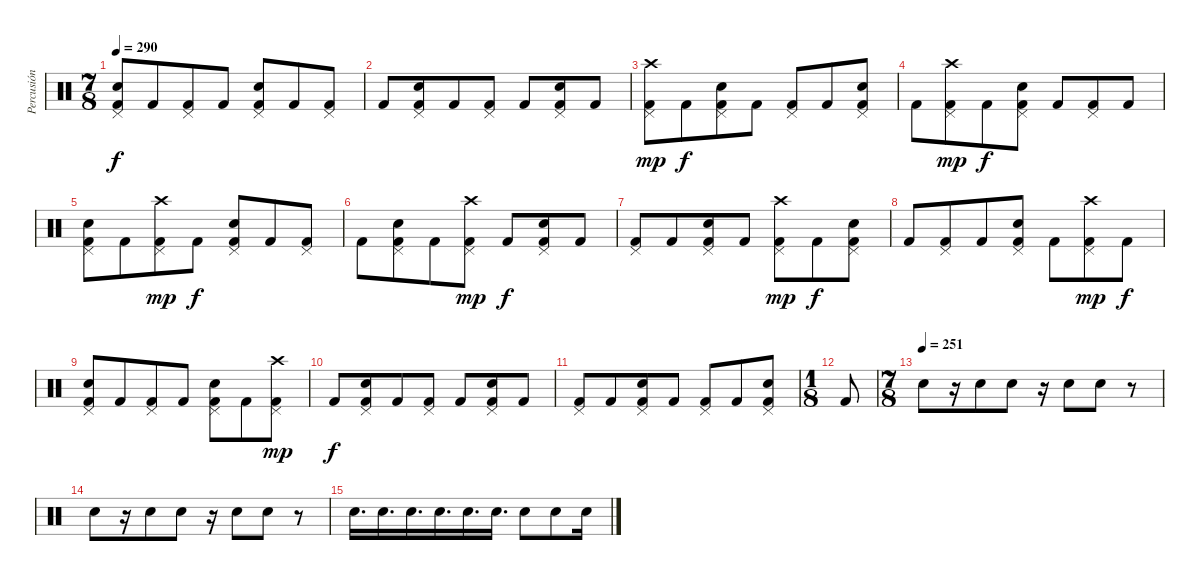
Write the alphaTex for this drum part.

\track ("Percusión" "Percusión") {instrument percussion}
\staff {score}
\articulation defaults
\ts (7 8)
\tempo 290
\clef neutral
\ks c
("Pedal Hi-Hat (hit)" "Snare (hit) 2" "Kick (hit) 2").8{dy f} "Kick (hit) 2".8 ("Pedal Hi-Hat (hit)" "Kick (hit) 2").8 "Kick (hit) 2".8 ("Pedal Hi-Hat (hit)" "Snare (hit) 2" "Kick (hit) 2").8 "Kick (hit) 2".8 ("Pedal Hi-Hat (hit)" "Kick (hit) 2").8 |
"Kick (hit) 2".8 ("Pedal Hi-Hat (hit)" "Snare (hit) 2" "Kick (hit) 2").8 "Kick (hit) 2".8 ("Pedal Hi-Hat (hit)" "Kick (hit) 2").8 "Kick (hit) 2".8 ("Pedal Hi-Hat (hit)" "Snare (hit) 2" "Kick (hit) 2").8 "Kick (hit) 2".8 |
("Crash high (hit)" "Pedal Hi-Hat (hit)" "Kick (hit) 2").8{dy mp} "Kick (hit) 2".8{dy f} ("Pedal Hi-Hat (hit)" "Snare (hit) 2" "Kick (hit) 2").8 "Kick (hit) 2".8 ("Pedal Hi-Hat (hit)" "Kick (hit) 2").8 "Kick (hit) 2".8 ("Pedal Hi-Hat (hit)" "Snare (hit) 2" "Kick (hit) 2").8 |
"Kick (hit) 2".8 ("Crash high (hit)" "Pedal Hi-Hat (hit)" "Kick (hit) 2").8{dy mp} "Kick (hit) 2".8{dy f} ("Pedal Hi-Hat (hit)" "Snare (hit) 2" "Kick (hit) 2").8 "Kick (hit) 2".8 ("Pedal Hi-Hat (hit)" "Kick (hit) 2").8 "Kick (hit) 2".8 |
("Pedal Hi-Hat (hit)" "Snare (hit) 2" "Kick (hit) 2").8 "Kick (hit) 2".8 ("Crash high (hit)" "Pedal Hi-Hat (hit)" "Kick (hit) 2").8{dy mp} "Kick (hit) 2".8{dy f} ("Pedal Hi-Hat (hit)" "Snare (hit) 2" "Kick (hit) 2").8 "Kick (hit) 2".8 ("Pedal Hi-Hat (hit)" "Kick (hit) 2").8 |
"Kick (hit) 2".8 ("Pedal Hi-Hat (hit)" "Snare (hit) 2" "Kick (hit) 2").8 "Kick (hit) 2".8 ("Crash high (hit)" "Pedal Hi-Hat (hit)" "Kick (hit) 2").8{dy mp} "Kick (hit) 2".8{dy f} ("Pedal Hi-Hat (hit)" "Snare (hit) 2" "Kick (hit) 2").8 "Kick (hit) 2".8 |
("Pedal Hi-Hat (hit)" "Kick (hit) 2").8 "Kick (hit) 2".8 ("Pedal Hi-Hat (hit)" "Snare (hit) 2" "Kick (hit) 2").8 "Kick (hit) 2".8 ("Crash high (hit)" "Pedal Hi-Hat (hit)" "Kick (hit) 2").8{dy mp} "Kick (hit) 2".8{dy f} ("Pedal Hi-Hat (hit)" "Snare (hit) 2" "Kick (hit) 2").8 |
"Kick (hit) 2".8 ("Pedal Hi-Hat (hit)" "Kick (hit) 2").8 "Kick (hit) 2".8 ("Pedal Hi-Hat (hit)" "Snare (hit) 2" "Kick (hit) 2").8 "Kick (hit) 2".8 ("Crash high (hit)" "Pedal Hi-Hat (hit)" "Kick (hit) 2").8{dy mp} "Kick (hit) 2".8{dy f} |
("Pedal Hi-Hat (hit)" "Snare (hit) 2" "Kick (hit) 2").8 "Kick (hit) 2".8 ("Pedal Hi-Hat (hit)" "Kick (hit) 2").8 "Kick (hit) 2".8 ("Pedal Hi-Hat (hit)" "Snare (hit) 2" "Kick (hit) 2").8 "Kick (hit) 2".8 ("Crash high (hit)" "Pedal Hi-Hat (hit)" "Kick (hit) 2").8{dy mp} |
"Kick (hit) 2".8{dy f} ("Pedal Hi-Hat (hit)" "Snare (hit) 2" "Kick (hit) 2").8 "Kick (hit) 2".8 ("Pedal Hi-Hat (hit)" "Kick (hit) 2").8 "Kick (hit) 2".8 ("Pedal Hi-Hat (hit)" "Snare (hit) 2" "Kick (hit) 2").8 "Kick (hit) 2".8 |
("Pedal Hi-Hat (hit)" "Kick (hit) 2").8 "Kick (hit) 2".8 ("Pedal Hi-Hat (hit)" "Snare (hit) 2" "Kick (hit) 2").8 "Kick (hit) 2".8 ("Pedal Hi-Hat (hit)" "Kick (hit) 2").8 "Kick (hit) 2".8 ("Pedal Hi-Hat (hit)" "Snare (hit) 2" "Kick (hit) 2").8 |
\ts (1 8)
"Kick (hit) 2".8 |
\ts (7 8)
\tempo (251)
"Snare (hit) 2".8 r.16 "Snare (hit) 2".8 "Snare (hit) 2".8 r.16 "Snare (hit) 2".8 "Snare (hit) 2".8 r.8 |
"Snare (hit) 2".8 r.16 "Snare (hit) 2".8 "Snare (hit) 2".8 r.16 "Snare (hit) 2".8 "Snare (hit) 2".8 r.8 |
"Snare (hit) 2".16{d} "Snare (hit) 2".16{d} "Snare (hit) 2".16{d} "Snare (hit) 2".16{d} "Snare (hit) 2".16{d} "Snare (hit) 2".16{d} "Snare (hit) 2".8 "Snare (hit) 2".8 "Snare (hit) 2".16
